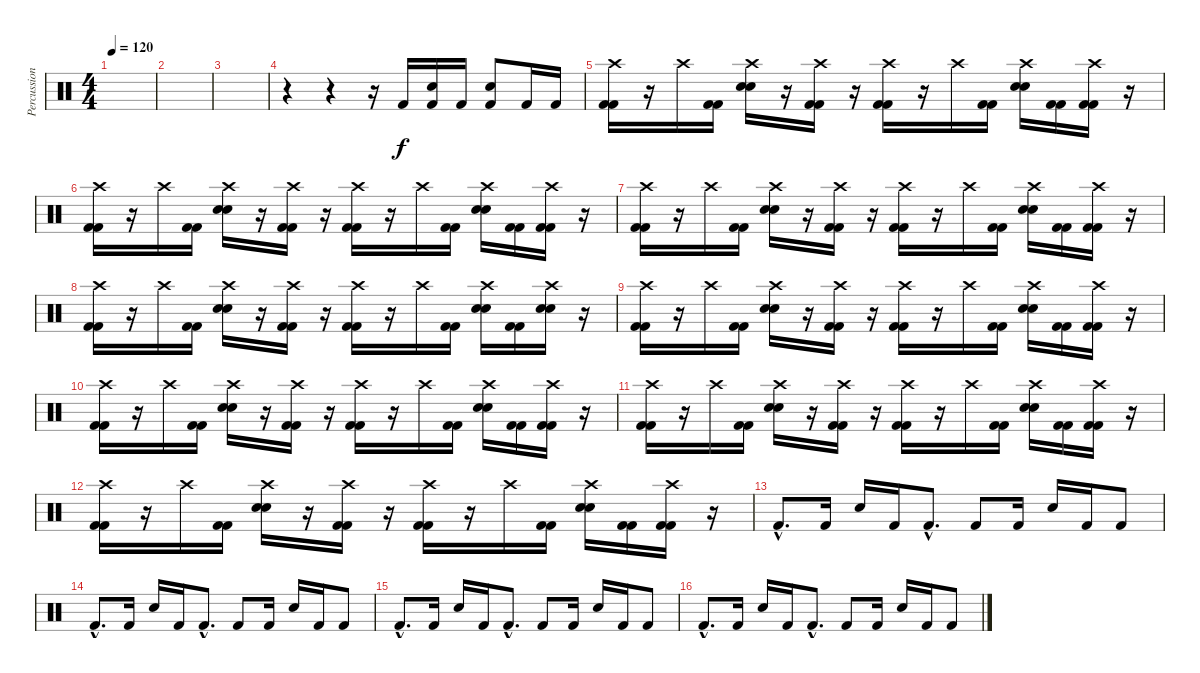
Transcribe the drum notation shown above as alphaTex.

\track ("Percussions" "Percussion") {instrument percussion}
\staff {score}
\articulation defaults
\ts (4 4)
\tempo 120
\clef neutral
\ks c
|
|
|
r.4 r.4 r.16 "Kick (hit) 2".16 ("Kick (hit) 2" "Electric Snare (hit)").16 "Kick (hit) 2".16 ("Kick (hit) 2" "Electric Snare (hit)").8 "Kick (hit) 2".16 "Kick (hit) 2".16 |
("Crash high (hit)" "Kick (hit) 2" "Kick (hit) 2").16 r.16 "Crash high (hit)".16 ("Kick (hit) 2" "Kick (hit) 2").16 ("Crash high (hit)" "Electric Snare (hit)" "Electric Snare (hit)").16 r.16 ("Crash high (hit)" "Kick (hit) 2" "Kick (hit) 2").16 r.16 ("Crash high (hit)" "Kick (hit) 2" "Kick (hit) 2").16 r.16 "Crash high (hit)".16 ("Kick (hit) 2" "Kick (hit) 2").16 ("Crash high (hit)" "Electric Snare (hit)" "Electric Snare (hit)").16 ("Kick (hit) 2" "Kick (hit) 2").16 ("Crash high (hit)" "Kick (hit) 2" "Kick (hit) 2").16 r.16 |
("Crash high (hit)" "Kick (hit) 2" "Kick (hit) 2").16 r.16 "Crash high (hit)".16 ("Kick (hit) 2" "Kick (hit) 2").16 ("Crash high (hit)" "Electric Snare (hit)" "Electric Snare (hit)").16 r.16 ("Crash high (hit)" "Kick (hit) 2" "Kick (hit) 2").16 r.16 ("Crash high (hit)" "Kick (hit) 2" "Kick (hit) 2").16 r.16 "Crash high (hit)".16 ("Kick (hit) 2" "Kick (hit) 2").16 ("Crash high (hit)" "Electric Snare (hit)" "Electric Snare (hit)").16 ("Kick (hit) 2" "Kick (hit) 2").16 ("Crash high (hit)" "Kick (hit) 2" "Kick (hit) 2").16 r.16 |
("Crash high (hit)" "Kick (hit) 2" "Kick (hit) 2").16 r.16 "Crash high (hit)".16 ("Kick (hit) 2" "Kick (hit) 2").16 ("Crash high (hit)" "Electric Snare (hit)" "Electric Snare (hit)").16 r.16 ("Crash high (hit)" "Kick (hit) 2" "Kick (hit) 2").16 r.16 ("Crash high (hit)" "Kick (hit) 2" "Kick (hit) 2").16 r.16 "Crash high (hit)".16 ("Kick (hit) 2" "Kick (hit) 2").16 ("Crash high (hit)" "Electric Snare (hit)" "Electric Snare (hit)").16 ("Kick (hit) 2" "Kick (hit) 2").16 ("Crash high (hit)" "Kick (hit) 2" "Kick (hit) 2").16 r.16 |
("Crash high (hit)" "Kick (hit) 2" "Kick (hit) 2").16 r.16 "Crash high (hit)".16 ("Kick (hit) 2" "Kick (hit) 2").16 ("Crash high (hit)" "Electric Snare (hit)" "Electric Snare (hit)").16 r.16 ("Crash high (hit)" "Kick (hit) 2" "Kick (hit) 2").16 r.16 ("Crash high (hit)" "Kick (hit) 2" "Kick (hit) 2").16 r.16 "Crash high (hit)".16 ("Kick (hit) 2" "Kick (hit) 2").16 ("Crash high (hit)" "Electric Snare (hit)" "Electric Snare (hit)").16 ("Kick (hit) 2" "Kick (hit) 2").16 ("Crash high (hit)" "Electric Snare (hit)" "Electric Snare (hit)").16 r.16 |
("Crash high (hit)" "Kick (hit) 2" "Kick (hit) 2").16 r.16 "Crash high (hit)".16 ("Kick (hit) 2" "Kick (hit) 2").16 ("Crash high (hit)" "Electric Snare (hit)" "Electric Snare (hit)").16 r.16 ("Crash high (hit)" "Kick (hit) 2" "Kick (hit) 2").16 r.16 ("Crash high (hit)" "Kick (hit) 2" "Kick (hit) 2").16 r.16 "Crash high (hit)".16 ("Kick (hit) 2" "Kick (hit) 2").16 ("Crash high (hit)" "Electric Snare (hit)" "Electric Snare (hit)").16 ("Kick (hit) 2" "Kick (hit) 2").16 ("Crash high (hit)" "Kick (hit) 2" "Kick (hit) 2").16 r.16 |
("Crash high (hit)" "Kick (hit) 2" "Kick (hit) 2").16 r.16 "Crash high (hit)".16 ("Kick (hit) 2" "Kick (hit) 2").16 ("Crash high (hit)" "Electric Snare (hit)" "Electric Snare (hit)").16 r.16 ("Crash high (hit)" "Kick (hit) 2" "Kick (hit) 2").16 r.16 ("Crash high (hit)" "Kick (hit) 2" "Kick (hit) 2").16 r.16 "Crash high (hit)".16 ("Kick (hit) 2" "Kick (hit) 2").16 ("Crash high (hit)" "Electric Snare (hit)" "Electric Snare (hit)").16 ("Kick (hit) 2" "Kick (hit) 2").16 ("Crash high (hit)" "Kick (hit) 2" "Kick (hit) 2").16 r.16 |
("Crash high (hit)" "Kick (hit) 2" "Kick (hit) 2").16 r.16 "Crash high (hit)".16 ("Kick (hit) 2" "Kick (hit) 2").16 ("Crash high (hit)" "Electric Snare (hit)" "Electric Snare (hit)").16 r.16 ("Crash high (hit)" "Kick (hit) 2" "Kick (hit) 2").16 r.16 ("Crash high (hit)" "Kick (hit) 2" "Kick (hit) 2").16 r.16 "Crash high (hit)".16 ("Kick (hit) 2" "Kick (hit) 2").16 ("Crash high (hit)" "Electric Snare (hit)" "Electric Snare (hit)").16 ("Kick (hit) 2" "Kick (hit) 2").16 ("Crash high (hit)" "Kick (hit) 2" "Kick (hit) 2").16 r.16 |
("Crash high (hit)" "Kick (hit) 2" "Kick (hit) 2").16 r.16 "Crash high (hit)".16 ("Kick (hit) 2" "Kick (hit) 2").16 ("Crash high (hit)" "Electric Snare (hit)" "Electric Snare (hit)").16 r.16 ("Crash high (hit)" "Kick (hit) 2" "Kick (hit) 2").16 r.16 ("Crash high (hit)" "Kick (hit) 2" "Kick (hit) 2").16 r.16 "Crash high (hit)".16 ("Kick (hit) 2" "Kick (hit) 2").16 ("Crash high (hit)" "Electric Snare (hit)" "Electric Snare (hit)").16 ("Kick (hit) 2" "Kick (hit) 2").16 ("Crash high (hit)" "Kick (hit) 2" "Kick (hit) 2").16 r.16 |
"Kick (hit) 2"{hac}.8{d} "Kick (hit) 2".16 "Electric Snare (hit)".16 "Kick (hit) 2".16 "Kick (hit) 2"{hac}.8{d} "Kick (hit) 2".8 "Kick (hit) 2".16 "Electric Snare (hit)".16 "Kick (hit) 2".16 "Kick (hit) 2".8 |
"Kick (hit) 2"{hac}.8{d} "Kick (hit) 2".16 "Electric Snare (hit)".16 "Kick (hit) 2".16 "Kick (hit) 2"{hac}.8{d} "Kick (hit) 2".8 "Kick (hit) 2".16 "Electric Snare (hit)".16 "Kick (hit) 2".16 "Kick (hit) 2".8 |
"Kick (hit) 2"{hac}.8{d} "Kick (hit) 2".16 "Electric Snare (hit)".16 "Kick (hit) 2".16 "Kick (hit) 2"{hac}.8{d} "Kick (hit) 2".8 "Kick (hit) 2".16 "Electric Snare (hit)".16 "Kick (hit) 2".16 "Kick (hit) 2".8 |
"Kick (hit) 2"{hac}.8{d} "Kick (hit) 2".16 "Electric Snare (hit)".16 "Kick (hit) 2".16 "Kick (hit) 2"{hac}.8{d} "Kick (hit) 2".8 "Kick (hit) 2".16 "Electric Snare (hit)".16 "Kick (hit) 2".16 "Kick (hit) 2".8
